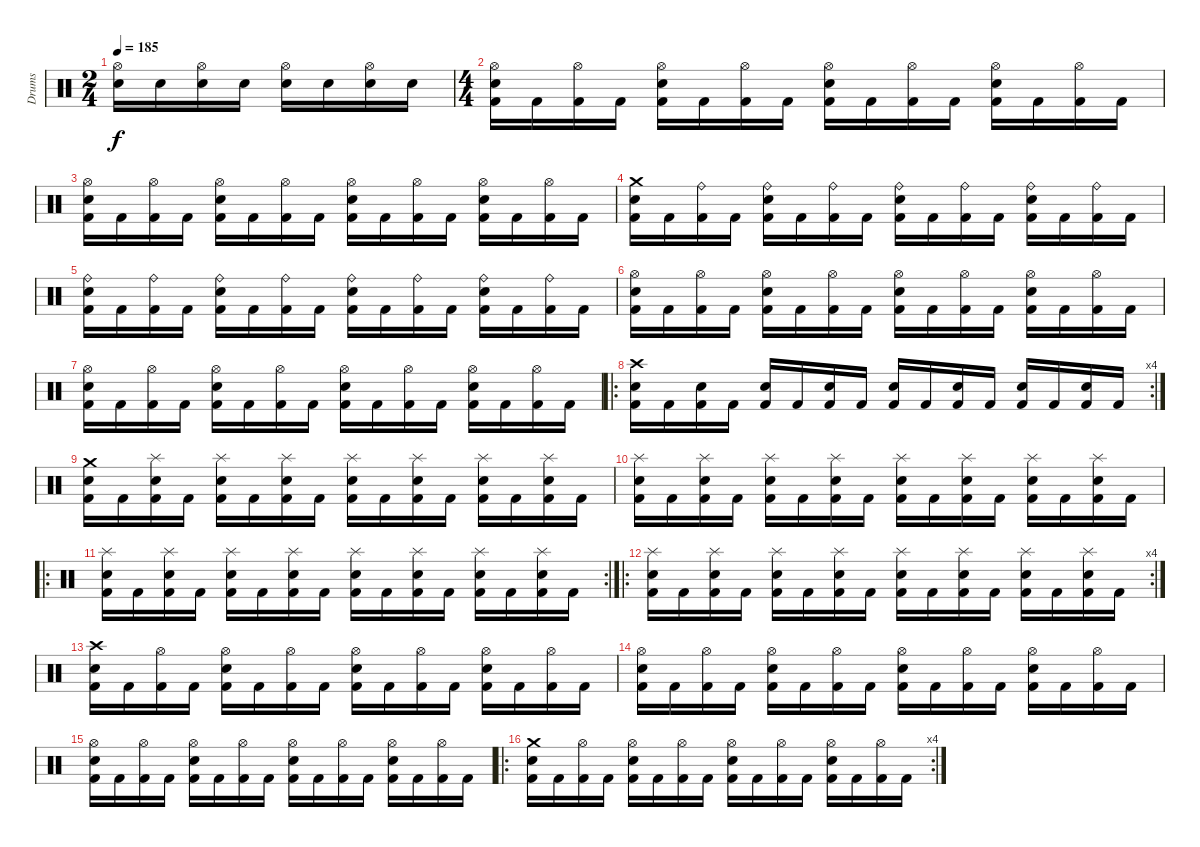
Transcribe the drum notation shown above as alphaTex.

\track ("Drums" "Drums") {instrument percussion}
\staff {score}
\articulation defaults
\ts (2 4)
\tempo 185
\clef neutral
\ks c
("Hi-Hat (open)" "Snare (hit) 2").16{dy f} "Snare (hit) 2".16 ("Hi-Hat (open)" "Snare (hit) 2").16 "Snare (hit) 2".16 ("Hi-Hat (open)" "Snare (hit) 2").16 "Snare (hit) 2".16 ("Hi-Hat (open)" "Snare (hit) 2").16 "Snare (hit) 2".16 |
\ts (4 4)
("Hi-Hat (open)" "Snare (hit) 2" "Kick (hit) 2").16 "Kick (hit) 2".16 ("Hi-Hat (open)" "Kick (hit) 2").16 "Kick (hit) 2".16 ("Hi-Hat (open)" "Snare (hit) 2" "Kick (hit) 2").16 "Kick (hit) 2".16 ("Hi-Hat (open)" "Kick (hit) 2").16 "Kick (hit) 2".16 ("Hi-Hat (open)" "Snare (hit) 2" "Kick (hit) 2").16 "Kick (hit) 2".16 ("Hi-Hat (open)" "Kick (hit) 2").16 "Kick (hit) 2".16 ("Hi-Hat (open)" "Snare (hit) 2" "Kick (hit) 2").16 "Kick (hit) 2".16 ("Hi-Hat (open)" "Kick (hit) 2").16 "Kick (hit) 2".16 |
("Hi-Hat (open)" "Snare (hit) 2" "Kick (hit) 2").16 "Kick (hit) 2".16 ("Hi-Hat (open)" "Kick (hit) 2").16 "Kick (hit) 2".16 ("Hi-Hat (open)" "Snare (hit) 2" "Kick (hit) 2").16 "Kick (hit) 2".16 ("Hi-Hat (open)" "Kick (hit) 2").16 "Kick (hit) 2".16 ("Hi-Hat (open)" "Snare (hit) 2" "Kick (hit) 2").16 "Kick (hit) 2".16 ("Hi-Hat (open)" "Kick (hit) 2").16 "Kick (hit) 2".16 ("Hi-Hat (open)" "Snare (hit) 2" "Kick (hit) 2").16 "Kick (hit) 2".16 ("Hi-Hat (open)" "Kick (hit) 2").16 "Kick (hit) 2".16 |
("Crash medium (hit)" "Snare (hit) 2" "Kick (hit) 2").16 "Kick (hit) 2".16 ("Ride (bell)" "Kick (hit) 2").16 "Kick (hit) 2".16 ("Ride (bell)" "Snare (hit) 2" "Kick (hit) 2").16 "Kick (hit) 2".16 ("Ride (bell)" "Kick (hit) 2").16 "Kick (hit) 2".16 ("Ride (bell)" "Snare (hit) 2" "Kick (hit) 2").16 "Kick (hit) 2".16 ("Ride (bell)" "Kick (hit) 2").16 "Kick (hit) 2".16 ("Ride (bell)" "Snare (hit) 2" "Kick (hit) 2").16 "Kick (hit) 2".16 ("Ride (bell)" "Kick (hit) 2").16 "Kick (hit) 2".16 |
("Ride (bell)" "Snare (hit) 2" "Kick (hit) 2").16 "Kick (hit) 2".16 ("Ride (bell)" "Kick (hit) 2").16 "Kick (hit) 2".16 ("Ride (bell)" "Snare (hit) 2" "Kick (hit) 2").16 "Kick (hit) 2".16 ("Ride (bell)" "Kick (hit) 2").16 "Kick (hit) 2".16 ("Ride (bell)" "Snare (hit) 2" "Kick (hit) 2").16 "Kick (hit) 2".16 ("Ride (bell)" "Kick (hit) 2").16 "Kick (hit) 2".16 ("Ride (bell)" "Snare (hit) 2" "Kick (hit) 2").16 "Kick (hit) 2".16 ("Ride (bell)" "Kick (hit) 2").16 "Kick (hit) 2".16 |
("Hi-Hat (open)" "Snare (hit) 2" "Kick (hit) 2").16 "Kick (hit) 2".16 ("Hi-Hat (open)" "Kick (hit) 2").16 "Kick (hit) 2".16 ("Hi-Hat (open)" "Snare (hit) 2" "Kick (hit) 2").16 "Kick (hit) 2".16 ("Hi-Hat (open)" "Kick (hit) 2").16 "Kick (hit) 2".16 ("Hi-Hat (open)" "Snare (hit) 2" "Kick (hit) 2").16 "Kick (hit) 2".16 ("Hi-Hat (open)" "Kick (hit) 2").16 "Kick (hit) 2".16 ("Hi-Hat (open)" "Snare (hit) 2" "Kick (hit) 2").16 "Kick (hit) 2".16 ("Hi-Hat (open)" "Kick (hit) 2").16 "Kick (hit) 2".16 |
("Hi-Hat (open)" "Snare (hit) 2" "Kick (hit) 2").16 "Kick (hit) 2".16 ("Hi-Hat (open)" "Kick (hit) 2").16 "Kick (hit) 2".16 ("Hi-Hat (open)" "Snare (hit) 2" "Kick (hit) 2").16 "Kick (hit) 2".16 ("Hi-Hat (open)" "Kick (hit) 2").16 "Kick (hit) 2".16 ("Hi-Hat (open)" "Snare (hit) 2" "Kick (hit) 2").16 "Kick (hit) 2".16 ("Hi-Hat (open)" "Kick (hit) 2").16 "Kick (hit) 2".16 ("Hi-Hat (open)" "Snare (hit) 2" "Kick (hit) 2").16 "Kick (hit) 2".16 ("Hi-Hat (open)" "Kick (hit) 2").16 "Kick (hit) 2".16 |
\ro
\rc 4
("Crash high (hit)" "Snare (hit) 2" "Kick (hit) 2").16 "Kick (hit) 2".16 ("Snare (hit) 2" "Kick (hit) 2").16 "Kick (hit) 2".16 ("Snare (hit) 2" "Kick (hit) 2").16 "Kick (hit) 2".16 ("Snare (hit) 2" "Kick (hit) 2").16 "Kick (hit) 2".16 ("Snare (hit) 2" "Kick (hit) 2").16 "Kick (hit) 2".16 ("Snare (hit) 2" "Kick (hit) 2").16 "Kick (hit) 2".16 ("Snare (hit) 2" "Kick (hit) 2").16 "Kick (hit) 2".16 ("Snare (hit) 2" "Kick (hit) 2").16 "Kick (hit) 2".16 |
("Crash medium (hit)" "Snare (hit) 2" "Kick (hit) 2").16 "Kick (hit) 2".16 ("Splash (hit)" "Snare (hit) 2" "Kick (hit) 2").16 "Kick (hit) 2".16 ("Splash (hit)" "Snare (hit) 2" "Kick (hit) 2").16 "Kick (hit) 2".16 ("Splash (hit)" "Snare (hit) 2" "Kick (hit) 2").16 "Kick (hit) 2".16 ("Splash (hit)" "Snare (hit) 2" "Kick (hit) 2").16 "Kick (hit) 2".16 ("Splash (hit)" "Snare (hit) 2" "Kick (hit) 2").16 "Kick (hit) 2".16 ("Splash (hit)" "Snare (hit) 2" "Kick (hit) 2").16 "Kick (hit) 2".16 ("Splash (hit)" "Snare (hit) 2" "Kick (hit) 2").16 "Kick (hit) 2".16 |
("Splash (hit)" "Snare (hit) 2" "Kick (hit) 2").16 "Kick (hit) 2".16 ("Splash (hit)" "Snare (hit) 2" "Kick (hit) 2").16 "Kick (hit) 2".16 ("Splash (hit)" "Snare (hit) 2" "Kick (hit) 2").16 "Kick (hit) 2".16 ("Splash (hit)" "Snare (hit) 2" "Kick (hit) 2").16 "Kick (hit) 2".16 ("Splash (hit)" "Snare (hit) 2" "Kick (hit) 2").16 "Kick (hit) 2".16 ("Splash (hit)" "Snare (hit) 2" "Kick (hit) 2").16 "Kick (hit) 2".16 ("Splash (hit)" "Snare (hit) 2" "Kick (hit) 2").16 "Kick (hit) 2".16 ("Splash (hit)" "Snare (hit) 2" "Kick (hit) 2").16 "Kick (hit) 2".16 |
\ro
\rc 2
("Splash (hit)" "Snare (hit) 2" "Kick (hit) 2").16 "Kick (hit) 2".16 ("Splash (hit)" "Snare (hit) 2" "Kick (hit) 2").16 "Kick (hit) 2".16 ("Splash (hit)" "Snare (hit) 2" "Kick (hit) 2").16 "Kick (hit) 2".16 ("Splash (hit)" "Snare (hit) 2" "Kick (hit) 2").16 "Kick (hit) 2".16 ("Splash (hit)" "Snare (hit) 2" "Kick (hit) 2").16 "Kick (hit) 2".16 ("Splash (hit)" "Snare (hit) 2" "Kick (hit) 2").16 "Kick (hit) 2".16 ("Splash (hit)" "Snare (hit) 2" "Kick (hit) 2").16 "Kick (hit) 2".16 ("Splash (hit)" "Snare (hit) 2" "Kick (hit) 2").16 "Kick (hit) 2".16 |
\ro
\rc 4
("Splash (hit)" "Snare (hit) 2" "Kick (hit) 2").16 "Kick (hit) 2".16 ("Splash (hit)" "Snare (hit) 2" "Kick (hit) 2").16 "Kick (hit) 2".16 ("Splash (hit)" "Snare (hit) 2" "Kick (hit) 2").16 "Kick (hit) 2".16 ("Splash (hit)" "Snare (hit) 2" "Kick (hit) 2").16 "Kick (hit) 2".16 ("Splash (hit)" "Snare (hit) 2" "Kick (hit) 2").16 "Kick (hit) 2".16 ("Splash (hit)" "Snare (hit) 2" "Kick (hit) 2").16 "Kick (hit) 2".16 ("Splash (hit)" "Snare (hit) 2" "Kick (hit) 2").16 "Kick (hit) 2".16 ("Splash (hit)" "Snare (hit) 2" "Kick (hit) 2").16 "Kick (hit) 2".16 |
("Crash high (hit)" "Snare (hit) 2" "Kick (hit) 2").16 "Kick (hit) 2".16 ("Hi-Hat (open)" "Kick (hit) 2").16 "Kick (hit) 2".16 ("Hi-Hat (open)" "Snare (hit) 2" "Kick (hit) 2").16 "Kick (hit) 2".16 ("Hi-Hat (open)" "Kick (hit) 2").16 "Kick (hit) 2".16 ("Hi-Hat (open)" "Snare (hit) 2" "Kick (hit) 2").16 "Kick (hit) 2".16 ("Hi-Hat (open)" "Kick (hit) 2").16 "Kick (hit) 2".16 ("Hi-Hat (open)" "Snare (hit) 2" "Kick (hit) 2").16 "Kick (hit) 2".16 ("Hi-Hat (open)" "Kick (hit) 2").16 "Kick (hit) 2".16 |
("Hi-Hat (open)" "Snare (hit) 2" "Kick (hit) 2").16 "Kick (hit) 2".16 ("Hi-Hat (open)" "Kick (hit) 2").16 "Kick (hit) 2".16 ("Hi-Hat (open)" "Snare (hit) 2" "Kick (hit) 2").16 "Kick (hit) 2".16 ("Hi-Hat (open)" "Kick (hit) 2").16 "Kick (hit) 2".16 ("Hi-Hat (open)" "Snare (hit) 2" "Kick (hit) 2").16 "Kick (hit) 2".16 ("Hi-Hat (open)" "Kick (hit) 2").16 "Kick (hit) 2".16 ("Hi-Hat (open)" "Snare (hit) 2" "Kick (hit) 2").16 "Kick (hit) 2".16 ("Hi-Hat (open)" "Kick (hit) 2").16 "Kick (hit) 2".16 |
("Hi-Hat (open)" "Snare (hit) 2" "Kick (hit) 2").16 "Kick (hit) 2".16 ("Hi-Hat (open)" "Kick (hit) 2").16 "Kick (hit) 2".16 ("Hi-Hat (open)" "Snare (hit) 2" "Kick (hit) 2").16 "Kick (hit) 2".16 ("Hi-Hat (open)" "Kick (hit) 2").16 "Kick (hit) 2".16 ("Hi-Hat (open)" "Snare (hit) 2" "Kick (hit) 2").16 "Kick (hit) 2".16 ("Hi-Hat (open)" "Kick (hit) 2").16 "Kick (hit) 2".16 ("Hi-Hat (open)" "Snare (hit) 2" "Kick (hit) 2").16 "Kick (hit) 2".16 ("Hi-Hat (open)" "Kick (hit) 2").16 "Kick (hit) 2".16 |
\ro
\rc 4
("Crash medium (hit)" "Snare (hit) 2" "Kick (hit) 2").16 "Kick (hit) 2".16 ("Hi-Hat (open)" "Kick (hit) 2").16 "Kick (hit) 2".16 ("Hi-Hat (open)" "Snare (hit) 2" "Kick (hit) 2").16 "Kick (hit) 2".16 ("Hi-Hat (open)" "Kick (hit) 2").16 "Kick (hit) 2".16 ("Hi-Hat (open)" "Snare (hit) 2" "Kick (hit) 2").16 "Kick (hit) 2".16 ("Hi-Hat (open)" "Kick (hit) 2").16 "Kick (hit) 2".16 ("Hi-Hat (open)" "Snare (hit) 2" "Kick (hit) 2").16 "Kick (hit) 2".16 ("Hi-Hat (open)" "Kick (hit) 2").16 "Kick (hit) 2".16
